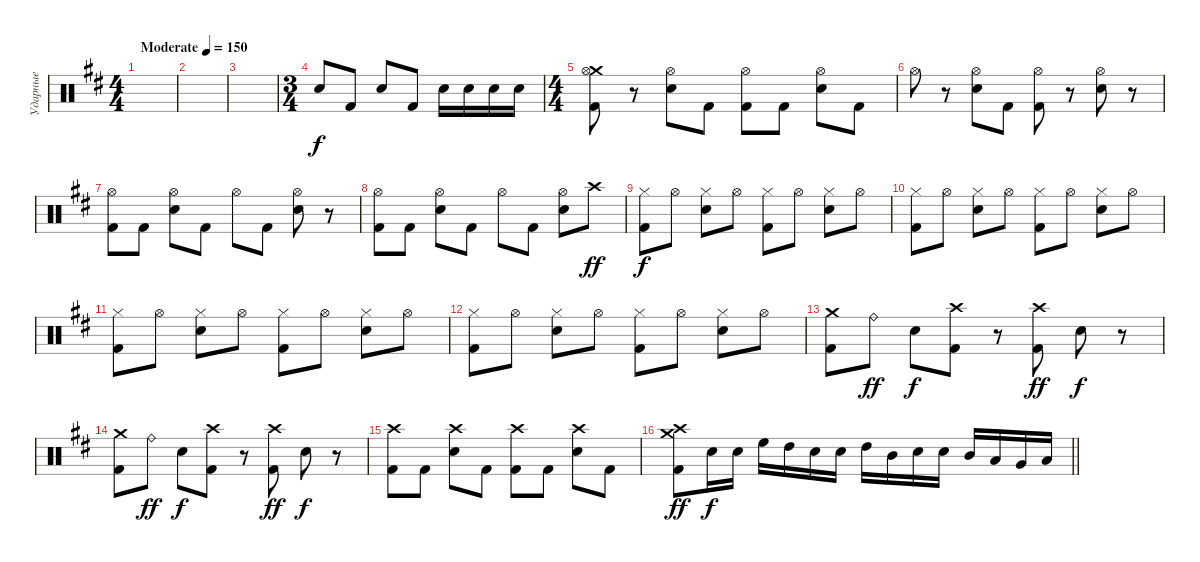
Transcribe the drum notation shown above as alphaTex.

\track ("Ударные" "Ударные") {instrument percussion}
\staff {score}
\articulation defaults
\ts (4 4)
\tempo (150 "Moderate")
\clef neutral
\ks bminor
|
|
|
\ts (3 4)
"Electric Snare (hit)".8 "Kick (hit) 2".8 "Electric Snare (hit)".8 "Kick (hit) 2".8 "Electric Snare (hit)".16 "Electric Snare (hit)".16 "Electric Snare (hit)".16 "Electric Snare (hit)".16 |
\ts (4 4)
("Crash medium (hit)" "Kick (hit) 2" "Hi-Hat (open)").8 r.8 ("Electric Snare (hit)" "Hi-Hat (open)").8 "Kick (hit) 2".8 ("Kick (hit) 2" "Hi-Hat (open)").8 "Kick (hit) 2".8 ("Electric Snare (hit)" "Hi-Hat (open)").8 "Kick (hit) 2".8 |
"Hi-Hat (open)".8 r.8 ("Electric Snare (hit)" "Hi-Hat (open)").8 "Kick (hit) 2".8 ("Kick (hit) 2" "Hi-Hat (open)").8 r.8 ("Electric Snare (hit)" "Hi-Hat (open)").8 r.8 |
("Kick (hit) 2" "Hi-Hat (open)").8 "Kick (hit) 2".8 ("Electric Snare (hit)" "Hi-Hat (open)").8 "Kick (hit) 2".8 "Hi-Hat (open)".8 "Kick (hit) 2".8 ("Electric Snare (hit)" "Hi-Hat (open)").8 r.8 |
("Kick (hit) 2" "Hi-Hat (open)").8 "Kick (hit) 2".8 ("Electric Snare (hit)" "Hi-Hat (open)").8 "Kick (hit) 2".8 "Hi-Hat (open)".8 "Kick (hit) 2".8 ("Electric Snare (hit)" "Hi-Hat (open)").8 "Crash high (hit)".8{dy ff} |
("Kick (hit) 2" "Hi-Hat (closed)").8{dy f} "Hi-Hat (open)".8 ("Electric Snare (hit)" "Hi-Hat (closed)").8 "Hi-Hat (open)".8 ("Kick (hit) 2" "Hi-Hat (closed)").8 "Hi-Hat (open)".8 ("Electric Snare (hit)" "Hi-Hat (closed)").8 "Hi-Hat (open)".8 |
("Kick (hit) 2" "Hi-Hat (closed)").8 "Hi-Hat (open)".8 ("Electric Snare (hit)" "Hi-Hat (closed)").8 "Hi-Hat (open)".8 ("Kick (hit) 2" "Hi-Hat (closed)").8 "Hi-Hat (open)".8 ("Electric Snare (hit)" "Hi-Hat (closed)").8 "Hi-Hat (open)".8 |
("Kick (hit) 2" "Hi-Hat (closed)").8 "Hi-Hat (open)".8 ("Electric Snare (hit)" "Hi-Hat (closed)").8 "Hi-Hat (open)".8 ("Kick (hit) 2" "Hi-Hat (closed)").8 "Hi-Hat (open)".8 ("Electric Snare (hit)" "Hi-Hat (closed)").8 "Hi-Hat (open)".8 |
("Kick (hit) 2" "Hi-Hat (closed)").8 "Hi-Hat (open)".8 ("Electric Snare (hit)" "Hi-Hat (closed)").8 "Hi-Hat (open)".8 ("Kick (hit) 2" "Hi-Hat (closed)").8 "Hi-Hat (open)".8 ("Electric Snare (hit)" "Hi-Hat (closed)").8 "Hi-Hat (open)".8 |
("Crash medium (hit)" "Kick (hit) 2").8 "Ride (bell)".8{dy ff} "Electric Snare (hit)".8{dy f} ("Crash high (hit)" "Kick (hit) 2").8 r.8 ("Crash high (hit)" "Kick (hit) 2").8{dy ff} "Electric Snare (hit)".8{dy f} r.8 |
("Crash medium (hit)" "Kick (hit) 2").8 "Ride (bell)".8{dy ff} "Electric Snare (hit)".8{dy f} ("Crash high (hit)" "Kick (hit) 2").8 r.8 ("Crash high (hit)" "Kick (hit) 2").8{dy ff} "Electric Snare (hit)".8{dy f} r.8 |
("Crash high (hit)" "Kick (hit) 2").8 "Kick (hit) 2".8 ("Crash high (hit)" "Electric Snare (hit)").8 "Kick (hit) 2".8 ("Crash high (hit)" "Kick (hit) 2").8 "Kick (hit) 2".8 ("Crash high (hit)" "Electric Snare (hit)").8 "Kick (hit) 2".8 |
\barLineRight lightlight
("Crash high (hit)" "Crash medium (hit)" "Kick (hit) 2").8{dy ff} "Electric Snare (hit)".16{dy f} "Electric Snare (hit)".16 "High Floor Tom (hit)".16 "High Tom (hit)".16 "Electric Snare (hit)".16 "Electric Snare (hit)".16 "High Tom (hit)".16 "Mid Tom (hit)".16 "Electric Snare (hit)".16 "Electric Snare (hit)".16 "Mid Tom (hit)".16 "Low Tom (hit)".16 "Very Low Tom (hit)".16 "Low Floor Tom (hit)".16
